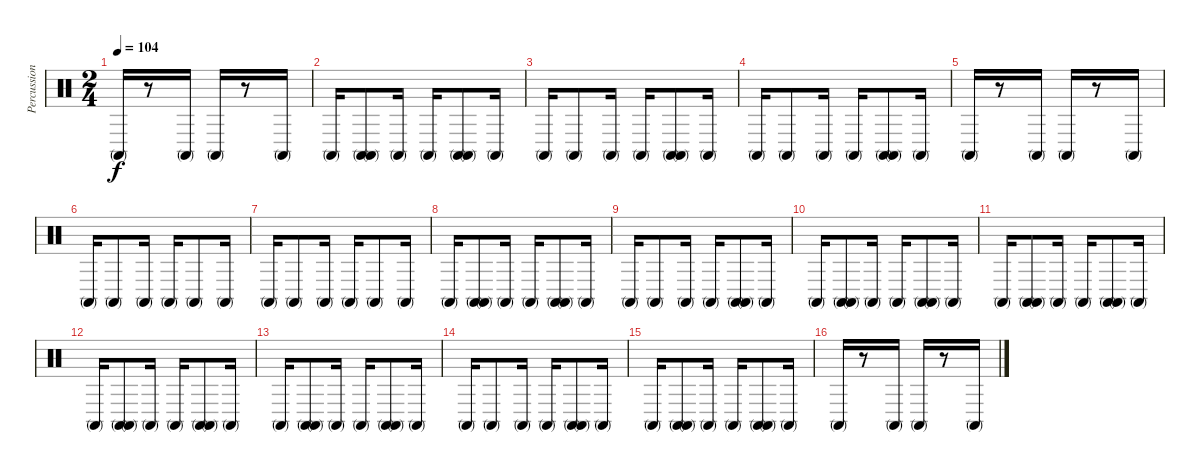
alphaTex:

\track ("Percussion" "Percussion") {instrument percussion}
\staff {score}
\articulation defaults
\ts (2 4)
\tempo 104
\clef neutral
\ks c "Conga high (mute)".16{dy f}
r.8 "Conga high (mute)".16 "Conga high (mute)".16 r.8 "Conga high (mute)".16 |
"Conga high (mute)".16 ("Conga high (mute)" "Conga high (mute)").8 "Conga high (mute)".16 "Conga high (mute)".16 ("Conga high (mute)" "Conga high (mute)").8 "Conga high (mute)".16 |
"Conga high (mute)".16 "Conga high (mute)".8 "Conga high (mute)".16 "Conga high (mute)".16 ("Conga high (mute)" "Conga high (mute)").8 "Conga high (mute)".16 |
"Conga high (mute)".16 "Conga high (mute)".8 "Conga high (mute)".16 "Conga high (mute)".16 ("Conga high (mute)" "Conga high (mute)").8 "Conga high (mute)".16 |
"Conga high (mute)".16 r.8 "Conga high (mute)".16 "Conga high (mute)".16 r.8 "Conga high (mute)".16 |
"Conga high (mute)".16 "Conga high (mute)".8 "Conga high (mute)".16 "Conga high (mute)".16 "Conga high (mute)".8 "Conga high (mute)".16 |
"Conga high (mute)".16 "Conga high (mute)".8 "Conga high (mute)".16 "Conga high (mute)".16 "Conga high (mute)".8 "Conga high (mute)".16 |
"Conga high (mute)".16 ("Conga high (mute)" "Conga high (mute)").8 "Conga high (mute)".16 "Conga high (mute)".16 ("Conga high (mute)" "Conga high (mute)").8 "Conga high (mute)".16 |
"Conga high (mute)".16 "Conga high (mute)".8 "Conga high (mute)".16 "Conga high (mute)".16 ("Conga high (mute)" "Conga high (mute)").8 "Conga high (mute)".16 |
"Conga high (mute)".16 ("Conga high (mute)" "Conga high (mute)").8 "Conga high (mute)".16 "Conga high (mute)".16 ("Conga high (mute)" "Conga high (mute)").8 "Conga high (mute)".16 |
"Conga high (mute)".16 ("Conga high (mute)" "Conga high (mute)").8 "Conga high (mute)".16 "Conga high (mute)".16 ("Conga high (mute)" "Conga high (mute)").8 "Conga high (mute)".16 |
"Conga high (mute)".16 ("Conga high (mute)" "Conga high (mute)").8 "Conga high (mute)".16 "Conga high (mute)".16 ("Conga high (mute)" "Conga high (mute)").8 "Conga high (mute)".16 |
"Conga high (mute)".16 ("Conga high (mute)" "Conga high (mute)").8 "Conga high (mute)".16 "Conga high (mute)".16 ("Conga high (mute)" "Conga high (mute)").8 "Conga high (mute)".16 |
"Conga high (mute)".16 "Conga high (mute)".8 "Conga high (mute)".16 "Conga high (mute)".16 ("Conga high (mute)" "Conga high (mute)").8 "Conga high (mute)".16 |
"Conga high (mute)".16 ("Conga high (mute)" "Conga high (mute)").8 "Conga high (mute)".16 "Conga high (mute)".16 ("Conga high (mute)" "Conga high (mute)").8 "Conga high (mute)".16 |
"Conga high (mute)".16 r.8 "Conga high (mute)".16 "Conga high (mute)".16 r.8 "Conga high (mute)".16
